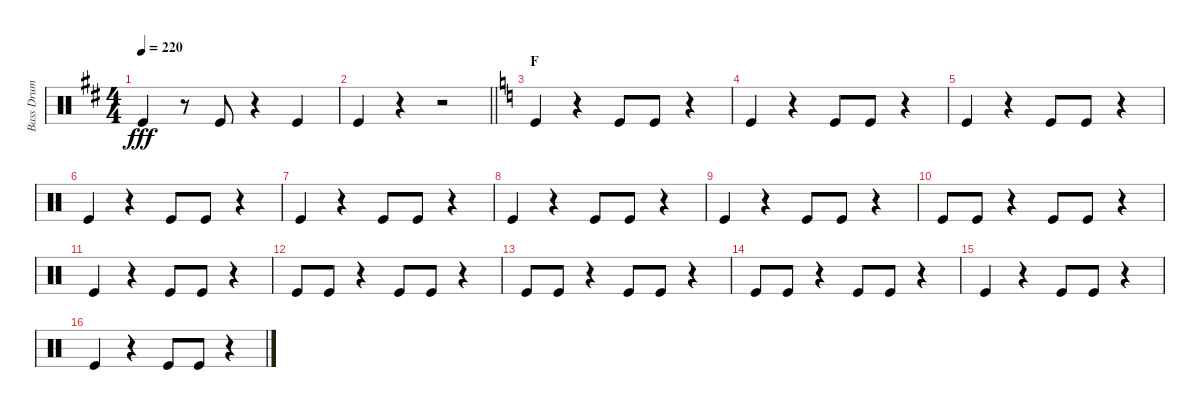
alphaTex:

\track ("Bass Drum" "Bass Drum") {instrument percussion}
\staff {score}
\articulation defaults
\ts (4 4)
\tempo 220
\clef neutral
\ks d "Kick (hit)".4{dy fff}
r.8 "Kick (hit)".8 r.4 "Kick (hit)".4 |
\barLineRight lightlight "Kick (hit)".4
r.4 r.2 |
\section ("" "F")
\ks c "Kick (hit)".4
r.4 "Kick (hit)".8 "Kick (hit)".8 r.4 |
"Kick (hit)".4 r.4 "Kick (hit)".8 "Kick (hit)".8 r.4 |
"Kick (hit)".4 r.4 "Kick (hit)".8 "Kick (hit)".8 r.4 |
"Kick (hit)".4 r.4 "Kick (hit)".8 "Kick (hit)".8 r.4 |
"Kick (hit)".4 r.4 "Kick (hit)".8 "Kick (hit)".8 r.4 |
"Kick (hit)".4 r.4 "Kick (hit)".8 "Kick (hit)".8 r.4 |
"Kick (hit)".4 r.4 "Kick (hit)".8 "Kick (hit)".8 r.4 |
"Kick (hit)".8 "Kick (hit)".8 r.4 "Kick (hit)".8 "Kick (hit)".8 r.4 |
"Kick (hit)".4 r.4 "Kick (hit)".8 "Kick (hit)".8 r.4 |
"Kick (hit)".8 "Kick (hit)".8 r.4 "Kick (hit)".8 "Kick (hit)".8 r.4 |
"Kick (hit)".8 "Kick (hit)".8 r.4 "Kick (hit)".8 "Kick (hit)".8 r.4 |
"Kick (hit)".8 "Kick (hit)".8 r.4 "Kick (hit)".8 "Kick (hit)".8 r.4 |
"Kick (hit)".4 r.4 "Kick (hit)".8 "Kick (hit)".8 r.4 |
"Kick (hit)".4 r.4 "Kick (hit)".8 "Kick (hit)".8 r.4
